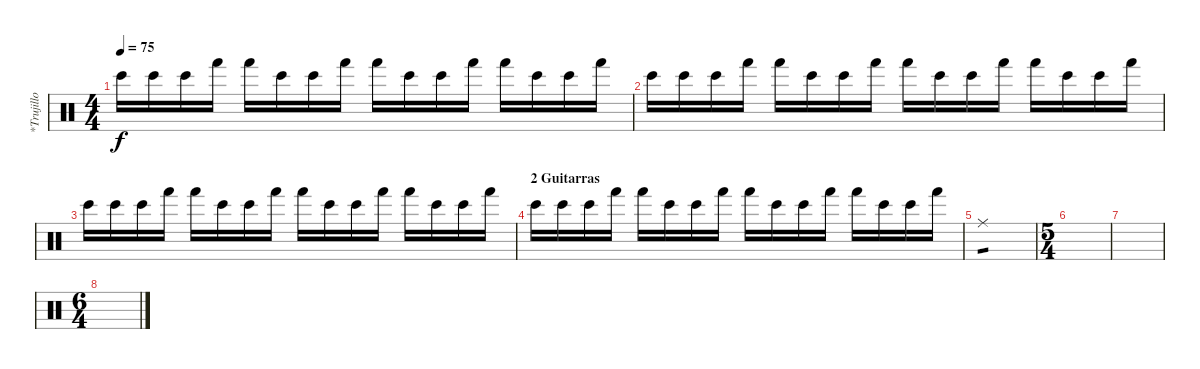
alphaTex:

\track ("*Trujillo" "*Trujillo") {instrument percussion}
\staff {score}
\articulation defaults
\ts (4 4)
\tempo 75
\clef neutral
\ks c "Bongo High (hit)".16{dy f} "Bongo High (hit)".16 "Bongo High (hit)".16 "Hand (hit)".16 "Hand (hit)".16 "Bongo High (hit)".16 "Bongo High (hit)".16 "Hand (hit)".16 "Hand (hit)".16 "Bongo High (hit)".16 "Bongo High (hit)".16 "Hand (hit)".16 "Hand (hit)".16 "Bongo High (hit)".16 "Bongo High (hit)".16 "Hand (hit)".16
|
"Bongo High (hit)".16 "Bongo High (hit)".16 "Bongo High (hit)".16 "Hand (hit)".16 "Hand (hit)".16 "Bongo High (hit)".16 "Bongo High (hit)".16 "Hand (hit)".16 "Hand (hit)".16 "Bongo High (hit)".16 "Bongo High (hit)".16 "Hand (hit)".16 "Hand (hit)".16 "Bongo High (hit)".16 "Bongo High (hit)".16 "Hand (hit)".16 |
"Bongo High (hit)".16 "Bongo High (hit)".16 "Bongo High (hit)".16 "Hand (hit)".16 "Hand (hit)".16 "Bongo High (hit)".16 "Bongo High (hit)".16 "Hand (hit)".16 "Hand (hit)".16 "Bongo High (hit)".16 "Bongo High (hit)".16 "Hand (hit)".16 "Hand (hit)".16 "Bongo High (hit)".16 "Bongo High (hit)".16 "Hand (hit)".16 |
\section ("" "2 Guitarras")
"Bongo High (hit)".16 "Bongo High (hit)".16 "Bongo High (hit)".16 "Hand (hit)".16 "Hand (hit)".16 "Bongo High (hit)".16 "Bongo High (hit)".16 "Hand (hit)".16 "Hand (hit)".16 "Bongo High (hit)".16 "Bongo High (hit)".16 "Hand (hit)".16 "Hand (hit)".16 "Bongo High (hit)".16 "Bongo High (hit)".16 "Hand (hit)".16 |
"Ride (middle)".1{tp 1} |
\ts (5 4)
|
|
\ts (6 4)
